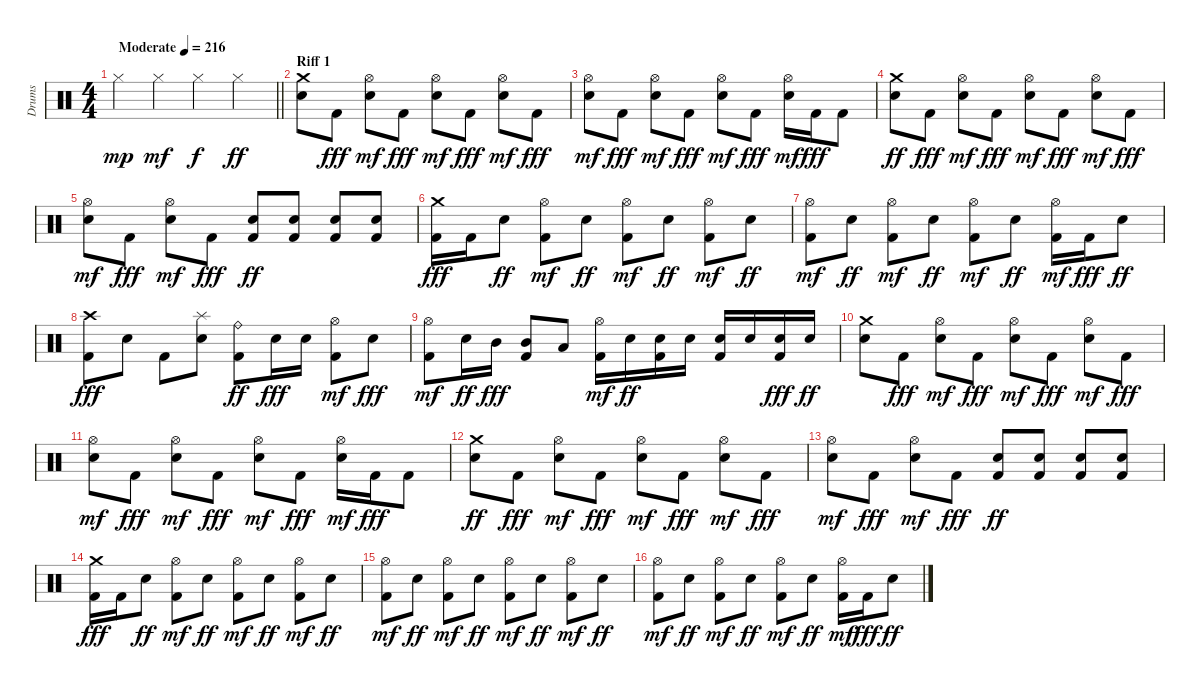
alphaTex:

\track ("Drums" "Drums") {instrument percussion}
\staff {score}
\articulation defaults
\ts (4 4)
\tempo (216 "Moderate")
\clef neutral
\barLineRight lightlight
\ks c "Hi-Hat (closed)".4{dy mp} "Hi-Hat (closed)".4{dy mf} "Hi-Hat (closed)".4{dy f} "Hi-Hat (closed)".4{dy ff}
|
\section ("" "Riff 1")
("Snare (hit) 2" "Crash medium (hit)").8 "Kick (hit) 2".8{dy fff} ("Snare (hit) 2" "Hi-Hat (open)").8{dy mf} "Kick (hit) 2".8{dy fff} ("Snare (hit) 2" "Hi-Hat (open)").8{dy mf} "Kick (hit) 2".8{dy fff} ("Snare (hit) 2" "Hi-Hat (open)").8{dy mf} "Kick (hit) 2".8{dy fff} |
("Snare (hit) 2" "Hi-Hat (open)").8{dy mf} "Kick (hit) 2".8{dy fff} ("Snare (hit) 2" "Hi-Hat (open)").8{dy mf} "Kick (hit) 2".8{dy fff} ("Snare (hit) 2" "Hi-Hat (open)").8{dy mf} "Kick (hit) 2".8{dy fff} ("Snare (hit) 2" "Hi-Hat (open)").16{dy mf} "Kick (hit) 2".16{dy fff} "Kick (hit) 2".8 |
("Snare (hit) 2" "Crash medium (hit)").8{dy ff} "Kick (hit) 2".8{dy fff} ("Snare (hit) 2" "Hi-Hat (open)").8{dy mf} "Kick (hit) 2".8{dy fff} ("Snare (hit) 2" "Hi-Hat (open)").8{dy mf} "Kick (hit) 2".8{dy fff} ("Snare (hit) 2" "Hi-Hat (open)").8{dy mf} "Kick (hit) 2".8{dy fff} |
("Snare (hit) 2" "Hi-Hat (open)").8{dy mf} "Kick (hit) 2".8{dy fff} ("Snare (hit) 2" "Hi-Hat (open)").8{dy mf} "Kick (hit) 2".8{dy fff} ("Kick (hit) 2" "Snare (hit) 2").8{dy ff} ("Kick (hit) 2" "Snare (hit) 2").8 ("Kick (hit) 2" "Snare (hit) 2").8 ("Kick (hit) 2" "Snare (hit) 2").8 |
("Kick (hit) 2" "Crash medium (hit)").16{dy fff} "Kick (hit) 2".16 "Snare (hit) 2".8{dy ff} ("Kick (hit) 2" "Hi-Hat (open)").8{dy mf} "Snare (hit) 2".8{dy ff} ("Kick (hit) 2" "Hi-Hat (open)").8{dy mf} "Snare (hit) 2".8{dy ff} ("Kick (hit) 2" "Hi-Hat (open)").8{dy mf} "Snare (hit) 2".8{dy ff} |
("Kick (hit) 2" "Hi-Hat (open)").8{dy mf} "Snare (hit) 2".8{dy ff} ("Kick (hit) 2" "Hi-Hat (open)").8{dy mf} "Snare (hit) 2".8{dy ff} ("Kick (hit) 2" "Hi-Hat (open)").8{dy mf} "Snare (hit) 2".8{dy ff} ("Kick (hit) 2" "Hi-Hat (open)").16{dy mf} "Kick (hit) 2".16{dy fff} "Snare (hit) 2".8{dy ff} |
("Kick (hit) 2" "Crash high (hit)").8{dy fff} "Snare (hit) 2".8 "Kick (hit) 2".8 ("Snare (hit) 2" "Splash (hit)").8 ("Kick (hit) 2" "Ride (bell)").8{dy ff} "Snare (hit) 2".16{dy fff} "Snare (hit) 2".16 ("Kick (hit) 2" "Hi-Hat (open)").8{dy mf} "Snare (hit) 2".8{dy fff} |
("Kick (hit) 2" "Hi-Hat (open)").8{dy mf} "Snare (hit) 2".16{dy ff} "Mid Tom (hit)".16{dy fff} ("Kick (hit) 2" "Mid Tom (hit)").8 "Low Tom (hit)".8 ("Kick (hit) 2" "Hi-Hat (open)").16{dy mf} "Snare (hit) 2".16{dy ff} ("Kick (hit) 2" "Snare (hit) 2").16 "Snare (hit) 2".16 ("Kick (hit) 2" "Snare (hit) 2").16 "Snare (hit) 2".16 ("Kick (hit) 2" "Snare (hit) 2").16{dy fff} "Snare (hit) 2".16{dy ff} |
("Snare (hit) 2" "Crash medium (hit)").8 "Kick (hit) 2".8{dy fff} ("Snare (hit) 2" "Hi-Hat (open)").8{dy mf} "Kick (hit) 2".8{dy fff} ("Snare (hit) 2" "Hi-Hat (open)").8{dy mf} "Kick (hit) 2".8{dy fff} ("Snare (hit) 2" "Hi-Hat (open)").8{dy mf} "Kick (hit) 2".8{dy fff} |
("Snare (hit) 2" "Hi-Hat (open)").8{dy mf} "Kick (hit) 2".8{dy fff} ("Snare (hit) 2" "Hi-Hat (open)").8{dy mf} "Kick (hit) 2".8{dy fff} ("Snare (hit) 2" "Hi-Hat (open)").8{dy mf} "Kick (hit) 2".8{dy fff} ("Snare (hit) 2" "Hi-Hat (open)").16{dy mf} "Kick (hit) 2".16{dy fff} "Kick (hit) 2".8 |
("Snare (hit) 2" "Crash medium (hit)").8{dy ff} "Kick (hit) 2".8{dy fff} ("Snare (hit) 2" "Hi-Hat (open)").8{dy mf} "Kick (hit) 2".8{dy fff} ("Snare (hit) 2" "Hi-Hat (open)").8{dy mf} "Kick (hit) 2".8{dy fff} ("Snare (hit) 2" "Hi-Hat (open)").8{dy mf} "Kick (hit) 2".8{dy fff} |
("Snare (hit) 2" "Hi-Hat (open)").8{dy mf} "Kick (hit) 2".8{dy fff} ("Snare (hit) 2" "Hi-Hat (open)").8{dy mf} "Kick (hit) 2".8{dy fff} ("Kick (hit) 2" "Snare (hit) 2").8{dy ff} ("Kick (hit) 2" "Snare (hit) 2").8 ("Kick (hit) 2" "Snare (hit) 2").8 ("Kick (hit) 2" "Snare (hit) 2").8 |
("Kick (hit) 2" "Crash medium (hit)").16{dy fff} "Kick (hit) 2".16 "Snare (hit) 2".8{dy ff} ("Kick (hit) 2" "Hi-Hat (open)").8{dy mf} "Snare (hit) 2".8{dy ff} ("Kick (hit) 2" "Hi-Hat (open)").8{dy mf} "Snare (hit) 2".8{dy ff} ("Kick (hit) 2" "Hi-Hat (open)").8{dy mf} "Snare (hit) 2".8{dy ff} |
("Kick (hit) 2" "Hi-Hat (open)").8{dy mf} "Snare (hit) 2".8{dy ff} ("Kick (hit) 2" "Hi-Hat (open)").8{dy mf} "Snare (hit) 2".8{dy ff} ("Kick (hit) 2" "Hi-Hat (open)").8{dy mf} "Snare (hit) 2".8{dy ff} ("Kick (hit) 2" "Hi-Hat (open)").8{dy mf} "Snare (hit) 2".8{dy ff} |
("Kick (hit) 2" "Hi-Hat (open)").8{dy mf} "Snare (hit) 2".8{dy ff} ("Kick (hit) 2" "Hi-Hat (open)").8{dy mf} "Snare (hit) 2".8{dy ff} ("Kick (hit) 2" "Hi-Hat (open)").8{dy mf} "Snare (hit) 2".8{dy ff} ("Kick (hit) 2" "Hi-Hat (open)").16{dy mf} "Kick (hit) 2".16{dy fff} "Snare (hit) 2".8{dy ff}
